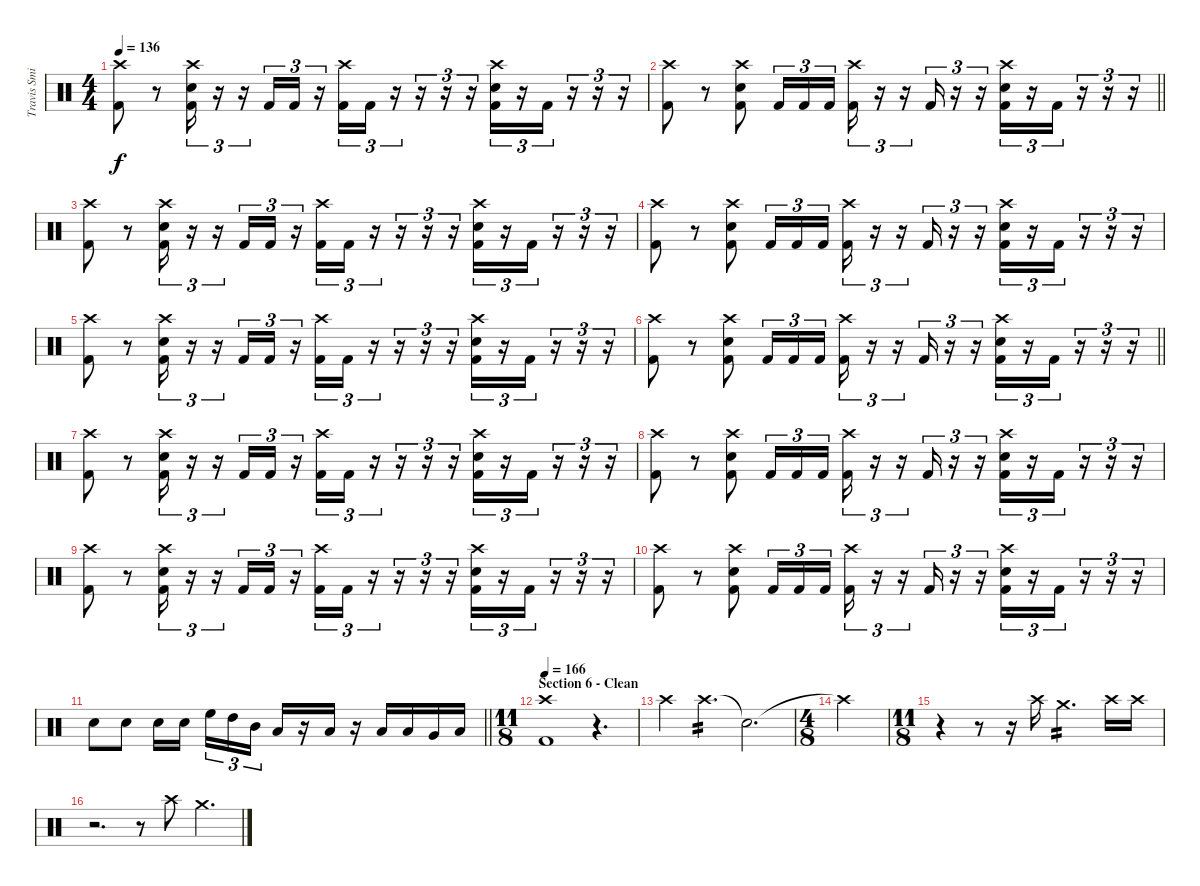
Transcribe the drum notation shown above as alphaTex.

\track ("Travis Smith" "Travis Smi") {instrument percussion}
\staff {score}
\articulation defaults
\ts (4 4)
\tempo 136
\clef neutral
\ks c
("Crash high (hit)" "Kick (hit) 2").8{dy f} r.8 ("Crash high (hit)" "Snare (hit) 2" "Kick (hit) 2").16{tu (3 2)} r.16{tu (3 2)} r.16{tu (3 2)} "Kick (hit) 2".16{tu (3 2)} "Kick (hit) 2".16{tu (3 2)} r.16{tu (3 2)} ("Crash high (hit)" "Kick (hit) 2").16{tu (3 2)} "Kick (hit) 2".16{tu (3 2)} r.16{tu (3 2)} r.16{tu (3 2)} r.16{tu (3 2)} r.16{tu (3 2)} ("Crash high (hit)" "Snare (hit) 2" "Kick (hit) 2").16{tu (3 2)} r.16{tu (3 2)} "Kick (hit) 2".16{tu (3 2)} r.16{tu (3 2)} r.16{tu (3 2)} r.16{tu (3 2)} |
\barLineRight lightlight
("Crash high (hit)" "Kick (hit) 2").8 r.8 ("Crash high (hit)" "Snare (hit) 2" "Kick (hit) 2").8 "Kick (hit) 2".16{tu (3 2)} "Kick (hit) 2".16{tu (3 2)} "Kick (hit) 2".16{tu (3 2)} ("Crash high (hit)" "Kick (hit) 2").16{tu (3 2)} r.16{tu (3 2)} r.16{tu (3 2)} "Kick (hit) 2".16{tu (3 2)} r.16{tu (3 2)} r.16{tu (3 2)} ("Crash high (hit)" "Snare (hit) 2" "Kick (hit) 2").16{tu (3 2)} r.16{tu (3 2)} "Kick (hit) 2".16{tu (3 2)} r.16{tu (3 2)} r.16{tu (3 2)} r.16{tu (3 2)} |
("Crash high (hit)" "Kick (hit) 2").8 r.8 ("Crash high (hit)" "Snare (hit) 2" "Kick (hit) 2").16{tu (3 2)} r.16{tu (3 2)} r.16{tu (3 2)} "Kick (hit) 2".16{tu (3 2)} "Kick (hit) 2".16{tu (3 2)} r.16{tu (3 2)} ("Crash high (hit)" "Kick (hit) 2").16{tu (3 2)} "Kick (hit) 2".16{tu (3 2)} r.16{tu (3 2)} r.16{tu (3 2)} r.16{tu (3 2)} r.16{tu (3 2)} ("Crash high (hit)" "Snare (hit) 2" "Kick (hit) 2").16{tu (3 2)} r.16{tu (3 2)} "Kick (hit) 2".16{tu (3 2)} r.16{tu (3 2)} r.16{tu (3 2)} r.16{tu (3 2)} |
("Crash high (hit)" "Kick (hit) 2").8 r.8 ("Crash high (hit)" "Snare (hit) 2" "Kick (hit) 2").8 "Kick (hit) 2".16{tu (3 2)} "Kick (hit) 2".16{tu (3 2)} "Kick (hit) 2".16{tu (3 2)} ("Crash high (hit)" "Kick (hit) 2").16{tu (3 2)} r.16{tu (3 2)} r.16{tu (3 2)} "Kick (hit) 2".16{tu (3 2)} r.16{tu (3 2)} r.16{tu (3 2)} ("Crash high (hit)" "Snare (hit) 2" "Kick (hit) 2").16{tu (3 2)} r.16{tu (3 2)} "Kick (hit) 2".16{tu (3 2)} r.16{tu (3 2)} r.16{tu (3 2)} r.16{tu (3 2)} |
("Crash high (hit)" "Kick (hit) 2").8 r.8 ("Crash high (hit)" "Snare (hit) 2" "Kick (hit) 2").16{tu (3 2)} r.16{tu (3 2)} r.16{tu (3 2)} "Kick (hit) 2".16{tu (3 2)} "Kick (hit) 2".16{tu (3 2)} r.16{tu (3 2)} ("Crash high (hit)" "Kick (hit) 2").16{tu (3 2)} "Kick (hit) 2".16{tu (3 2)} r.16{tu (3 2)} r.16{tu (3 2)} r.16{tu (3 2)} r.16{tu (3 2)} ("Crash high (hit)" "Snare (hit) 2" "Kick (hit) 2").16{tu (3 2)} r.16{tu (3 2)} "Kick (hit) 2".16{tu (3 2)} r.16{tu (3 2)} r.16{tu (3 2)} r.16{tu (3 2)} |
\barLineRight lightlight
("Crash high (hit)" "Kick (hit) 2").8 r.8 ("Crash high (hit)" "Snare (hit) 2" "Kick (hit) 2").8 "Kick (hit) 2".16{tu (3 2)} "Kick (hit) 2".16{tu (3 2)} "Kick (hit) 2".16{tu (3 2)} ("Crash high (hit)" "Kick (hit) 2").16{tu (3 2)} r.16{tu (3 2)} r.16{tu (3 2)} "Kick (hit) 2".16{tu (3 2)} r.16{tu (3 2)} r.16{tu (3 2)} ("Crash high (hit)" "Snare (hit) 2" "Kick (hit) 2").16{tu (3 2)} r.16{tu (3 2)} "Kick (hit) 2".16{tu (3 2)} r.16{tu (3 2)} r.16{tu (3 2)} r.16{tu (3 2)} |
("Crash high (hit)" "Kick (hit) 2").8 r.8 ("Crash high (hit)" "Snare (hit) 2" "Kick (hit) 2").16{tu (3 2)} r.16{tu (3 2)} r.16{tu (3 2)} "Kick (hit) 2".16{tu (3 2)} "Kick (hit) 2".16{tu (3 2)} r.16{tu (3 2)} ("Crash high (hit)" "Kick (hit) 2").16{tu (3 2)} "Kick (hit) 2".16{tu (3 2)} r.16{tu (3 2)} r.16{tu (3 2)} r.16{tu (3 2)} r.16{tu (3 2)} ("Crash high (hit)" "Snare (hit) 2" "Kick (hit) 2").16{tu (3 2)} r.16{tu (3 2)} "Kick (hit) 2".16{tu (3 2)} r.16{tu (3 2)} r.16{tu (3 2)} r.16{tu (3 2)} |
("Crash high (hit)" "Kick (hit) 2").8 r.8 ("Crash high (hit)" "Snare (hit) 2" "Kick (hit) 2").8 "Kick (hit) 2".16{tu (3 2)} "Kick (hit) 2".16{tu (3 2)} "Kick (hit) 2".16{tu (3 2)} ("Crash high (hit)" "Kick (hit) 2").16{tu (3 2)} r.16{tu (3 2)} r.16{tu (3 2)} "Kick (hit) 2".16{tu (3 2)} r.16{tu (3 2)} r.16{tu (3 2)} ("Crash high (hit)" "Snare (hit) 2" "Kick (hit) 2").16{tu (3 2)} r.16{tu (3 2)} "Kick (hit) 2".16{tu (3 2)} r.16{tu (3 2)} r.16{tu (3 2)} r.16{tu (3 2)} |
("Crash high (hit)" "Kick (hit) 2").8 r.8 ("Crash high (hit)" "Snare (hit) 2" "Kick (hit) 2").16{tu (3 2)} r.16{tu (3 2)} r.16{tu (3 2)} "Kick (hit) 2".16{tu (3 2)} "Kick (hit) 2".16{tu (3 2)} r.16{tu (3 2)} ("Crash high (hit)" "Kick (hit) 2").16{tu (3 2)} "Kick (hit) 2".16{tu (3 2)} r.16{tu (3 2)} r.16{tu (3 2)} r.16{tu (3 2)} r.16{tu (3 2)} ("Crash high (hit)" "Snare (hit) 2" "Kick (hit) 2").16{tu (3 2)} r.16{tu (3 2)} "Kick (hit) 2".16{tu (3 2)} r.16{tu (3 2)} r.16{tu (3 2)} r.16{tu (3 2)} |
("Crash high (hit)" "Kick (hit) 2").8 r.8 ("Crash high (hit)" "Snare (hit) 2" "Kick (hit) 2").8 "Kick (hit) 2".16{tu (3 2)} "Kick (hit) 2".16{tu (3 2)} "Kick (hit) 2".16{tu (3 2)} ("Crash high (hit)" "Kick (hit) 2").16{tu (3 2)} r.16{tu (3 2)} r.16{tu (3 2)} "Kick (hit) 2".16{tu (3 2)} r.16{tu (3 2)} r.16{tu (3 2)} ("Crash high (hit)" "Snare (hit) 2" "Kick (hit) 2").16{tu (3 2)} r.16{tu (3 2)} "Kick (hit) 2".16{tu (3 2)} r.16{tu (3 2)} r.16{tu (3 2)} r.16{tu (3 2)} |
\barLineRight lightlight "Snare (hit) 2".8 "Snare (hit) 2".8 "Snare (hit) 2".16 "Snare (hit) 2".16{beam splitsecondary} "High Floor Tom (hit)".16{tu (3 2)} "High Tom (hit)".16{tu (3 2)} "Mid Tom (hit)".16{tu (3 2)} "Low Tom (hit)".16
r.16 "Low Tom (hit)".16 r.16 "Low Tom (hit)".16 "Low Tom (hit)".16 "Very Low Tom (hit)".16 "Low Floor Tom (hit)".16 |
\ts (11 8)
\section ("" "Section 6 - Clean")
\tempo 166
("Crash high (hit)" "Kick (hit) 2").1 r.4{d} |
"Crash high (hit)".4{volume 0} "Crash high (hit)".4{d tp 2 volume 16} "Snare (hit)"{t}.2{d} |
\ts (4 8)
"Crash high (hit)"{t}.2 |
\ts (11 8)
r.4 r.8 r.16 "Crash high (hit)".16{volume 0} "Crash medium (hit)".2{d tp 2 volume 16} "Crash high (hit)".16{volume 0} "Crash high (hit)".16{volume 16} |
r.2{d} r.8 "Crash high (hit)".8{volume 0} "Crash medium (hit)".4{d volume 16}
